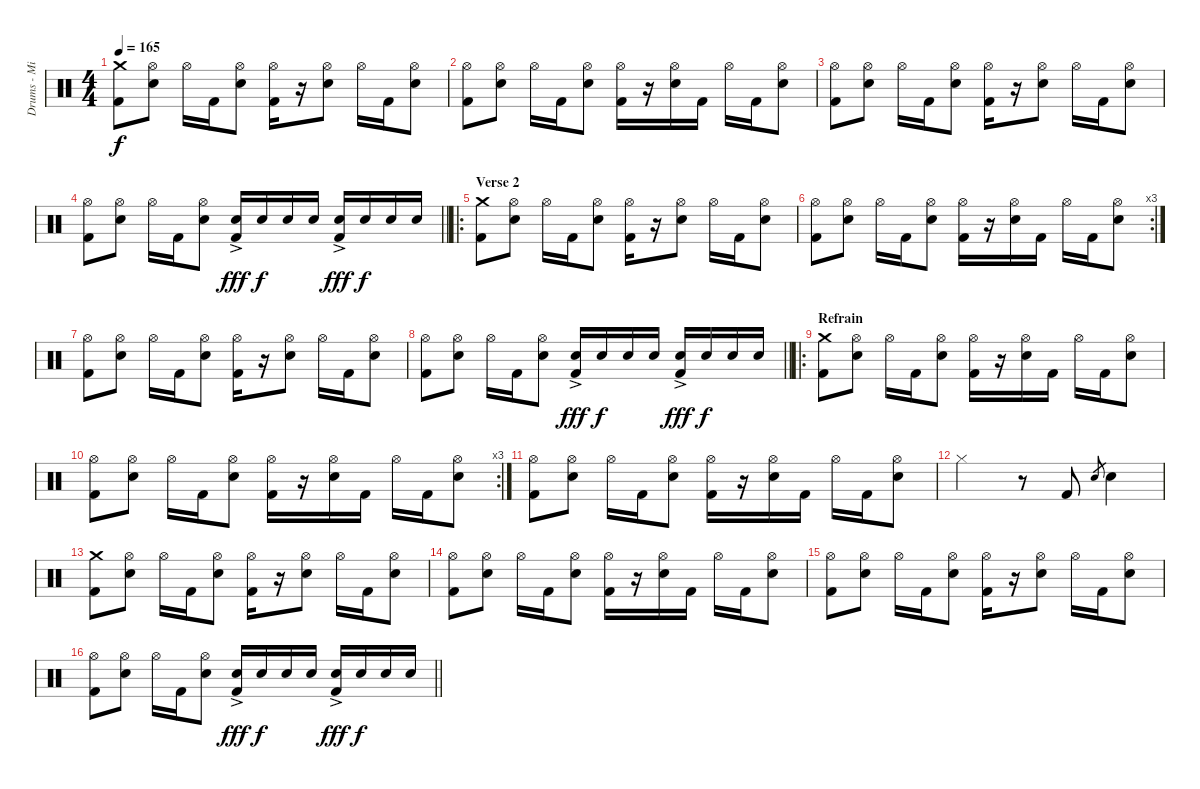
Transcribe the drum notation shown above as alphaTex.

\track ("Drums - Ming" "Drums - Mi") {instrument percussion}
\staff {score}
\articulation defaults
\ts (4 4)
\tempo 165
\clef neutral
\ks c
("Crash medium (hit)" "Kick (hit) 2").8{dy f} ("Hi-Hat (open)" "Electric Snare (hit)").8 "Hi-Hat (open)".16 "Kick (hit) 2".16 ("Hi-Hat (open)" "Electric Snare (hit)").8 ("Hi-Hat (open)" "Kick (hit) 2").16 r.16 ("Hi-Hat (open)" "Electric Snare (hit)").8 "Hi-Hat (open)".16 "Kick (hit) 2".16 ("Hi-Hat (open)" "Electric Snare (hit)").8 |
("Hi-Hat (open)" "Kick (hit) 2").8 ("Hi-Hat (open)" "Electric Snare (hit)").8 "Hi-Hat (open)".16 "Kick (hit) 2".16 ("Hi-Hat (open)" "Electric Snare (hit)").8 ("Hi-Hat (open)" "Kick (hit) 2").16 r.16 ("Hi-Hat (open)" "Electric Snare (hit)").16 "Kick (hit) 2".16 "Hi-Hat (open)".16 "Kick (hit) 2".16 ("Hi-Hat (open)" "Electric Snare (hit)").8 |
("Hi-Hat (open)" "Kick (hit) 2").8 ("Hi-Hat (open)" "Electric Snare (hit)").8 "Hi-Hat (open)".16 "Kick (hit) 2".16 ("Hi-Hat (open)" "Electric Snare (hit)").8 ("Hi-Hat (open)" "Kick (hit) 2").16 r.16 ("Hi-Hat (open)" "Electric Snare (hit)").8 "Hi-Hat (open)".16 "Kick (hit) 2".16 ("Hi-Hat (open)" "Electric Snare (hit)").8 |
\barLineRight lightlight
("Hi-Hat (open)" "Kick (hit) 2").8 ("Hi-Hat (open)" "Electric Snare (hit)").8 "Hi-Hat (open)".16 "Kick (hit) 2".16 ("Hi-Hat (open)" "Electric Snare (hit)").8 ("Electric Snare (hit)"{ac} "Kick (hit) 2").16{dy fff} "Electric Snare (hit)".16{dy f} "Electric Snare (hit)".16 "Electric Snare (hit)".16 ("Electric Snare (hit)"{ac} "Kick (hit) 2").16{dy fff} "Electric Snare (hit)".16{dy f} "Electric Snare (hit)".16 "Electric Snare (hit)".16 |
\ro
\section ("" "Verse 2")
("Crash medium (hit)" "Kick (hit) 2").8 ("Hi-Hat (open)" "Electric Snare (hit)").8 "Hi-Hat (open)".16 "Kick (hit) 2".16 ("Hi-Hat (open)" "Electric Snare (hit)").8 ("Hi-Hat (open)" "Kick (hit) 2").16 r.16 ("Hi-Hat (open)" "Electric Snare (hit)").8 "Hi-Hat (open)".16 "Kick (hit) 2".16 ("Hi-Hat (open)" "Electric Snare (hit)").8 |
\rc 3
("Hi-Hat (open)" "Kick (hit) 2").8 ("Hi-Hat (open)" "Electric Snare (hit)").8 "Hi-Hat (open)".16 "Kick (hit) 2".16 ("Hi-Hat (open)" "Electric Snare (hit)").8 ("Hi-Hat (open)" "Kick (hit) 2").16 r.16 ("Hi-Hat (open)" "Electric Snare (hit)").16 "Kick (hit) 2".16 "Hi-Hat (open)".16 "Kick (hit) 2".16 ("Hi-Hat (open)" "Electric Snare (hit)").8 |
("Hi-Hat (open)" "Kick (hit) 2").8 ("Hi-Hat (open)" "Electric Snare (hit)").8 "Hi-Hat (open)".16 "Kick (hit) 2".16 ("Hi-Hat (open)" "Electric Snare (hit)").8 ("Hi-Hat (open)" "Kick (hit) 2").16 r.16 ("Hi-Hat (open)" "Electric Snare (hit)").8 "Hi-Hat (open)".16 "Kick (hit) 2".16 ("Hi-Hat (open)" "Electric Snare (hit)").8 |
\barLineRight lightlight
("Hi-Hat (open)" "Kick (hit) 2").8 ("Hi-Hat (open)" "Electric Snare (hit)").8 "Hi-Hat (open)".16 "Kick (hit) 2".16 ("Hi-Hat (open)" "Electric Snare (hit)").8 ("Electric Snare (hit)"{ac} "Kick (hit) 2").16{dy fff} "Electric Snare (hit)".16{dy f} "Electric Snare (hit)".16 "Electric Snare (hit)".16 ("Electric Snare (hit)"{ac} "Kick (hit) 2").16{dy fff} "Electric Snare (hit)".16{dy f} "Electric Snare (hit)".16 "Electric Snare (hit)".16 |
\ro
\section ("" "Refrain")
("Crash medium (hit)" "Kick (hit) 2").8 ("Hi-Hat (open)" "Electric Snare (hit)").8 "Hi-Hat (open)".16 "Kick (hit) 2".16 ("Hi-Hat (open)" "Electric Snare (hit)").8 ("Hi-Hat (open)" "Kick (hit) 2").16 r.16 ("Hi-Hat (open)" "Electric Snare (hit)").16 "Kick (hit) 2".16 "Hi-Hat (open)".16 "Kick (hit) 2".16 ("Hi-Hat (open)" "Electric Snare (hit)").8 |
\rc 3
("Hi-Hat (open)" "Kick (hit) 2").8 ("Hi-Hat (open)" "Electric Snare (hit)").8 "Hi-Hat (open)".16 "Kick (hit) 2".16 ("Hi-Hat (open)" "Electric Snare (hit)").8 ("Hi-Hat (open)" "Kick (hit) 2").16 r.16 ("Hi-Hat (open)" "Electric Snare (hit)").16 "Kick (hit) 2".16 "Hi-Hat (open)".16 "Kick (hit) 2".16 ("Hi-Hat (open)" "Electric Snare (hit)").8 |
("Hi-Hat (open)" "Kick (hit) 2").8 ("Hi-Hat (open)" "Electric Snare (hit)").8 "Hi-Hat (open)".16 "Kick (hit) 2".16 ("Hi-Hat (open)" "Electric Snare (hit)").8 ("Hi-Hat (open)" "Kick (hit) 2").16 r.16 ("Hi-Hat (open)" "Electric Snare (hit)").16 "Kick (hit) 2".16 "Hi-Hat (open)".16 "Kick (hit) 2".16 ("Hi-Hat (open)" "Electric Snare (hit)").8 |
"Hi-Hat (closed)".2 r.8 "Kick (hit) 2".8 "Electric Snare (hit)"{h}.8{gr} "Electric Snare (hit)".4 |
("Crash medium (hit)" "Kick (hit) 2").8 ("Hi-Hat (open)" "Electric Snare (hit)").8 "Hi-Hat (open)".16 "Kick (hit) 2".16 ("Hi-Hat (open)" "Electric Snare (hit)").8 ("Hi-Hat (open)" "Kick (hit) 2").16 r.16 ("Hi-Hat (open)" "Electric Snare (hit)").8 "Hi-Hat (open)".16 "Kick (hit) 2".16 ("Hi-Hat (open)" "Electric Snare (hit)").8 |
("Hi-Hat (open)" "Kick (hit) 2").8 ("Hi-Hat (open)" "Electric Snare (hit)").8 "Hi-Hat (open)".16 "Kick (hit) 2".16 ("Hi-Hat (open)" "Electric Snare (hit)").8 ("Hi-Hat (open)" "Kick (hit) 2").16 r.16 ("Hi-Hat (open)" "Electric Snare (hit)").16 "Kick (hit) 2".16 "Hi-Hat (open)".16 "Kick (hit) 2".16 ("Hi-Hat (open)" "Electric Snare (hit)").8 |
("Hi-Hat (open)" "Kick (hit) 2").8 ("Hi-Hat (open)" "Electric Snare (hit)").8 "Hi-Hat (open)".16 "Kick (hit) 2".16 ("Hi-Hat (open)" "Electric Snare (hit)").8 ("Hi-Hat (open)" "Kick (hit) 2").16 r.16 ("Hi-Hat (open)" "Electric Snare (hit)").8 "Hi-Hat (open)".16 "Kick (hit) 2".16 ("Hi-Hat (open)" "Electric Snare (hit)").8 |
\barLineRight lightlight
("Hi-Hat (open)" "Kick (hit) 2").8 ("Hi-Hat (open)" "Electric Snare (hit)").8 "Hi-Hat (open)".16 "Kick (hit) 2".16 ("Hi-Hat (open)" "Electric Snare (hit)").8 ("Electric Snare (hit)"{ac} "Kick (hit) 2").16{dy fff} "Electric Snare (hit)".16{dy f} "Electric Snare (hit)".16 "Electric Snare (hit)".16 ("Electric Snare (hit)"{ac} "Kick (hit) 2").16{dy fff} "Electric Snare (hit)".16{dy f} "Electric Snare (hit)".16 "Electric Snare (hit)".16
